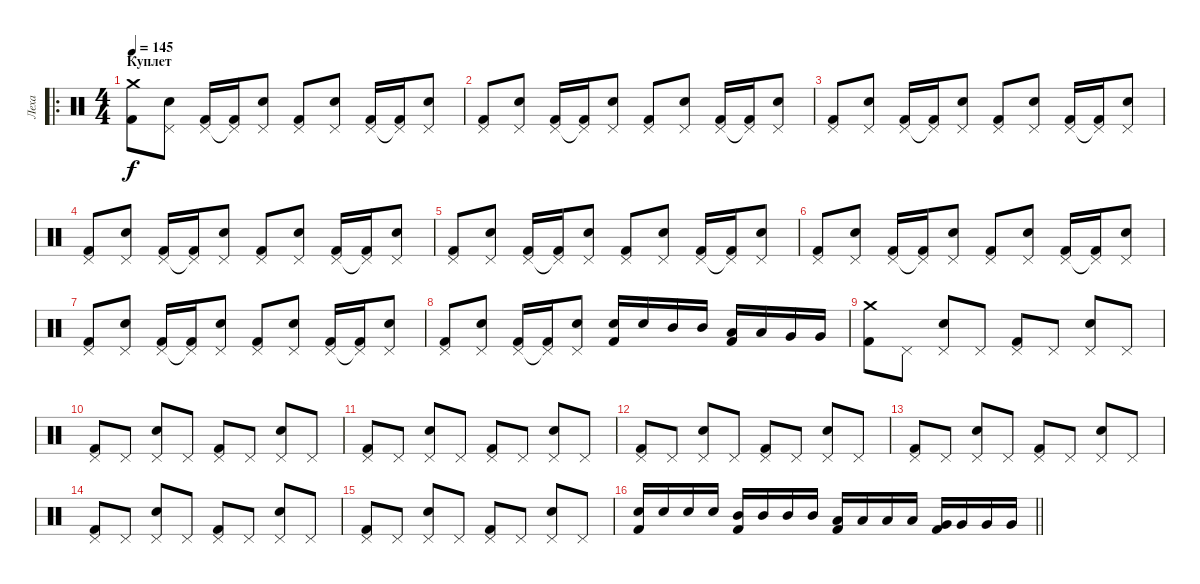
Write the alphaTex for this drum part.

\track ("Леха" "Леха") {instrument percussion}
\staff {score}
\articulation defaults
\ro
\ts (4 4)
\section ("" "Куплет")
\tempo 145
\clef neutral
\ks c
("Crash medium (hit)" "Kick (hit) 2").8{dy f} ("Pedal Hi-Hat (hit)" "Electric Snare (hit)").8 ("Pedal Hi-Hat (hit)" "Kick (hit) 2").16 ("Pedal Hi-Hat (hit)"{t} "Kick (hit) 2").16 ("Pedal Hi-Hat (hit)" "Electric Snare (hit)").8 ("Pedal Hi-Hat (hit)" "Kick (hit) 2").8 ("Pedal Hi-Hat (hit)" "Electric Snare (hit)").8 ("Pedal Hi-Hat (hit)" "Kick (hit) 2").16 ("Pedal Hi-Hat (hit)"{t} "Kick (hit) 2").16 ("Pedal Hi-Hat (hit)" "Electric Snare (hit)").8 |
("Pedal Hi-Hat (hit)" "Kick (hit) 2").8 ("Pedal Hi-Hat (hit)" "Electric Snare (hit)").8 ("Pedal Hi-Hat (hit)" "Kick (hit) 2").16 ("Pedal Hi-Hat (hit)"{t} "Kick (hit) 2").16 ("Pedal Hi-Hat (hit)" "Electric Snare (hit)").8 ("Pedal Hi-Hat (hit)" "Kick (hit) 2").8 ("Pedal Hi-Hat (hit)" "Electric Snare (hit)").8 ("Pedal Hi-Hat (hit)" "Kick (hit) 2").16 ("Pedal Hi-Hat (hit)"{t} "Kick (hit) 2").16 ("Pedal Hi-Hat (hit)" "Electric Snare (hit)").8 |
("Pedal Hi-Hat (hit)" "Kick (hit) 2").8 ("Pedal Hi-Hat (hit)" "Electric Snare (hit)").8 ("Pedal Hi-Hat (hit)" "Kick (hit) 2").16 ("Pedal Hi-Hat (hit)"{t} "Kick (hit) 2").16 ("Pedal Hi-Hat (hit)" "Electric Snare (hit)").8 ("Pedal Hi-Hat (hit)" "Kick (hit) 2").8 ("Pedal Hi-Hat (hit)" "Electric Snare (hit)").8 ("Pedal Hi-Hat (hit)" "Kick (hit) 2").16 ("Pedal Hi-Hat (hit)"{t} "Kick (hit) 2").16 ("Pedal Hi-Hat (hit)" "Electric Snare (hit)").8 |
("Pedal Hi-Hat (hit)" "Kick (hit) 2").8 ("Pedal Hi-Hat (hit)" "Electric Snare (hit)").8 ("Pedal Hi-Hat (hit)" "Kick (hit) 2").16 ("Pedal Hi-Hat (hit)"{t} "Kick (hit) 2").16 ("Pedal Hi-Hat (hit)" "Electric Snare (hit)").8 ("Pedal Hi-Hat (hit)" "Kick (hit) 2").8 ("Pedal Hi-Hat (hit)" "Electric Snare (hit)").8 ("Pedal Hi-Hat (hit)" "Kick (hit) 2").16 ("Pedal Hi-Hat (hit)"{t} "Kick (hit) 2").16 ("Pedal Hi-Hat (hit)" "Electric Snare (hit)").8 |
("Pedal Hi-Hat (hit)" "Kick (hit) 2").8 ("Pedal Hi-Hat (hit)" "Electric Snare (hit)").8 ("Pedal Hi-Hat (hit)" "Kick (hit) 2").16 ("Pedal Hi-Hat (hit)"{t} "Kick (hit) 2").16 ("Pedal Hi-Hat (hit)" "Electric Snare (hit)").8 ("Pedal Hi-Hat (hit)" "Kick (hit) 2").8 ("Pedal Hi-Hat (hit)" "Electric Snare (hit)").8 ("Pedal Hi-Hat (hit)" "Kick (hit) 2").16 ("Pedal Hi-Hat (hit)"{t} "Kick (hit) 2").16 ("Pedal Hi-Hat (hit)" "Electric Snare (hit)").8 |
("Pedal Hi-Hat (hit)" "Kick (hit) 2").8 ("Pedal Hi-Hat (hit)" "Electric Snare (hit)").8 ("Pedal Hi-Hat (hit)" "Kick (hit) 2").16 ("Pedal Hi-Hat (hit)"{t} "Kick (hit) 2").16 ("Pedal Hi-Hat (hit)" "Electric Snare (hit)").8 ("Pedal Hi-Hat (hit)" "Kick (hit) 2").8 ("Pedal Hi-Hat (hit)" "Electric Snare (hit)").8 ("Pedal Hi-Hat (hit)" "Kick (hit) 2").16 ("Pedal Hi-Hat (hit)"{t} "Kick (hit) 2").16 ("Pedal Hi-Hat (hit)" "Electric Snare (hit)").8 |
("Pedal Hi-Hat (hit)" "Kick (hit) 2").8 ("Pedal Hi-Hat (hit)" "Electric Snare (hit)").8 ("Pedal Hi-Hat (hit)" "Kick (hit) 2").16 ("Pedal Hi-Hat (hit)"{t} "Kick (hit) 2").16 ("Pedal Hi-Hat (hit)" "Electric Snare (hit)").8 ("Pedal Hi-Hat (hit)" "Kick (hit) 2").8 ("Pedal Hi-Hat (hit)" "Electric Snare (hit)").8 ("Pedal Hi-Hat (hit)" "Kick (hit) 2").16 ("Pedal Hi-Hat (hit)"{t} "Kick (hit) 2").16 ("Pedal Hi-Hat (hit)" "Electric Snare (hit)").8 |
("Pedal Hi-Hat (hit)" "Kick (hit) 2").8 ("Pedal Hi-Hat (hit)" "Electric Snare (hit)").8 ("Pedal Hi-Hat (hit)" "Kick (hit) 2").16 ("Pedal Hi-Hat (hit)"{t} "Kick (hit) 2").16 ("Pedal Hi-Hat (hit)" "Electric Snare (hit)").8 ("Electric Snare (hit)" "Kick (hit) 2").16 "Electric Snare (hit)".16 "Mid Tom (hit)".16 "Mid Tom (hit)".16 ("Low Tom (hit)" "Kick (hit) 2").16 "Low Tom (hit)".16 "Very Low Tom (hit)".16 "Very Low Tom (hit)".16 |
("Crash medium (hit)" "Kick (hit) 2").8 "Pedal Hi-Hat (hit)".8 ("Pedal Hi-Hat (hit)" "Electric Snare (hit)").8 "Pedal Hi-Hat (hit)".8 ("Pedal Hi-Hat (hit)" "Kick (hit) 2").8 "Pedal Hi-Hat (hit)".8 ("Pedal Hi-Hat (hit)" "Electric Snare (hit)").8 "Pedal Hi-Hat (hit)".8 |
("Pedal Hi-Hat (hit)" "Kick (hit) 2").8 "Pedal Hi-Hat (hit)".8 ("Pedal Hi-Hat (hit)" "Electric Snare (hit)").8 "Pedal Hi-Hat (hit)".8 ("Pedal Hi-Hat (hit)" "Kick (hit) 2").8 "Pedal Hi-Hat (hit)".8 ("Pedal Hi-Hat (hit)" "Electric Snare (hit)").8 "Pedal Hi-Hat (hit)".8 |
("Pedal Hi-Hat (hit)" "Kick (hit) 2").8 "Pedal Hi-Hat (hit)".8 ("Pedal Hi-Hat (hit)" "Electric Snare (hit)").8 "Pedal Hi-Hat (hit)".8 ("Pedal Hi-Hat (hit)" "Kick (hit) 2").8 "Pedal Hi-Hat (hit)".8 ("Pedal Hi-Hat (hit)" "Electric Snare (hit)").8 "Pedal Hi-Hat (hit)".8 |
("Pedal Hi-Hat (hit)" "Kick (hit) 2").8 "Pedal Hi-Hat (hit)".8 ("Pedal Hi-Hat (hit)" "Electric Snare (hit)").8 "Pedal Hi-Hat (hit)".8 ("Pedal Hi-Hat (hit)" "Kick (hit) 2").8 "Pedal Hi-Hat (hit)".8 ("Pedal Hi-Hat (hit)" "Electric Snare (hit)").8 "Pedal Hi-Hat (hit)".8 |
("Pedal Hi-Hat (hit)" "Kick (hit) 2").8 "Pedal Hi-Hat (hit)".8 ("Pedal Hi-Hat (hit)" "Electric Snare (hit)").8 "Pedal Hi-Hat (hit)".8 ("Pedal Hi-Hat (hit)" "Kick (hit) 2").8 "Pedal Hi-Hat (hit)".8 ("Pedal Hi-Hat (hit)" "Electric Snare (hit)").8 "Pedal Hi-Hat (hit)".8 |
("Pedal Hi-Hat (hit)" "Kick (hit) 2").8 "Pedal Hi-Hat (hit)".8 ("Pedal Hi-Hat (hit)" "Electric Snare (hit)").8 "Pedal Hi-Hat (hit)".8 ("Pedal Hi-Hat (hit)" "Kick (hit) 2").8 "Pedal Hi-Hat (hit)".8 ("Pedal Hi-Hat (hit)" "Electric Snare (hit)").8 "Pedal Hi-Hat (hit)".8 |
("Pedal Hi-Hat (hit)" "Kick (hit) 2").8 "Pedal Hi-Hat (hit)".8 ("Pedal Hi-Hat (hit)" "Electric Snare (hit)").8 "Pedal Hi-Hat (hit)".8 ("Pedal Hi-Hat (hit)" "Kick (hit) 2").8 "Pedal Hi-Hat (hit)".8 ("Pedal Hi-Hat (hit)" "Electric Snare (hit)").8 "Pedal Hi-Hat (hit)".8 |
\barLineRight lightlight
("Electric Snare (hit)" "Kick (hit) 2").16 "Electric Snare (hit)".16 "Electric Snare (hit)".16 "Electric Snare (hit)".16 ("Mid Tom (hit)" "Kick (hit) 2").16 "Mid Tom (hit)".16 "Mid Tom (hit)".16 "Mid Tom (hit)".16 ("Low Tom (hit)" "Kick (hit) 2").16 "Low Tom (hit)".16 "Low Tom (hit)".16 "Low Tom (hit)".16 ("Very Low Tom (hit)" "Kick (hit) 2").16 "Very Low Tom (hit)".16 "Very Low Tom (hit)".16 "Very Low Tom (hit)".16
